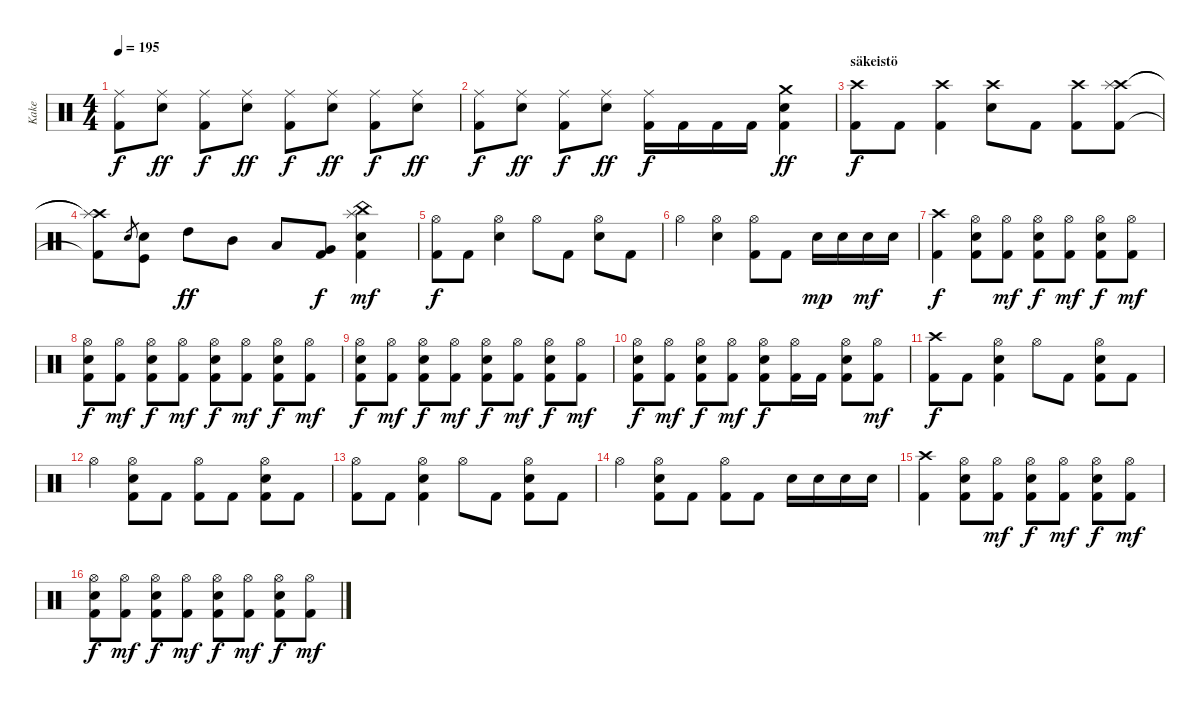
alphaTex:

\track ("Kake " "Kake ") {instrument percussion}
\staff {score}
\articulation defaults
\ts (4 4)
\tempo 195
\clef neutral
\ks c
("Ride (middle)" "Kick (hit) 2").8{dy f} ("Ride (middle)" "Electric Snare (hit)").8{dy ff} ("Ride (middle)" "Kick (hit) 2").8{dy f} ("Ride (middle)" "Electric Snare (hit)").8{dy ff} ("Ride (middle)" "Kick (hit) 2").8{dy f} ("Ride (middle)" "Electric Snare (hit)").8{dy ff} ("Ride (middle)" "Kick (hit) 2").8{dy f} ("Ride (middle)" "Electric Snare (hit)").8{dy ff} |
("Ride (middle)" "Kick (hit) 2").8{dy f} ("Ride (middle)" "Electric Snare (hit)").8{dy ff} ("Ride (middle)" "Kick (hit) 2").8{dy f} ("Ride (middle)" "Electric Snare (hit)").8{dy ff} ("Ride (middle)" "Kick (hit) 2").16{dy f} "Kick (hit) 2".16 "Kick (hit) 2".16 "Kick (hit) 2".16 ("Crash medium (hit)" "Electric Snare (hit)" "Kick (hit) 2").4{dy ff} |
\section ("" "säkeistö")
("Crash high (hit)" "Kick (hit) 2").8{dy f} "Kick (hit) 2".8 ("Crash high (hit)" "Kick (hit) 2").4 ("Crash high (hit)" "Electric Snare (hit)").8 "Kick (hit) 2".8 ("Crash high (hit)" "Kick (hit) 2").8 ("Crash high (hit)" "Splash (hit)" "Kick (hit) 2").8 |
("Crash high (hit)"{t} "Splash (hit)"{t} "Kick (hit) 2"{t}).8 "Electric Snare (hit)".8{gr} ("Electric Snare (hit)" "Kick (hit)").8 "High Tom (hit)".8{dy ff} "Mid Tom (hit)".8 "Low Tom (hit)".8 ("Very Low Tom (hit)" "Kick (hit) 2").8{dy f} ("China (hit)" "Splash (hit)" "Electric Snare (hit)" "Kick (hit) 2").4{dy mf} |
("Hi-Hat (open)" "Kick (hit) 2").8{dy f} "Kick (hit) 2".8 ("Hi-Hat (open)" "Electric Snare (hit)").4 "Hi-Hat (open)".8 "Kick (hit) 2".8 ("Hi-Hat (open)" "Electric Snare (hit)").8 "Kick (hit) 2".8 |
"Hi-Hat (open)".4 ("Hi-Hat (open)" "Electric Snare (hit)").4 ("Hi-Hat (open)" "Kick (hit) 2").8 "Kick (hit) 2".8 "Electric Snare (hit)".16{dy mp} "Electric Snare (hit)".16 "Electric Snare (hit)".16{dy mf} "Electric Snare (hit)".16 |
("Crash high (hit)" "Kick (hit) 2").4{dy f} ("Hi-Hat (open)" "Electric Snare (hit)" "Kick (hit) 2").8 ("Hi-Hat (open)" "Kick (hit) 2").8{dy mf} ("Hi-Hat (open)" "Electric Snare (hit)" "Kick (hit) 2").8{dy f} ("Hi-Hat (open)" "Kick (hit) 2").8{dy mf} ("Hi-Hat (open)" "Electric Snare (hit)" "Kick (hit) 2").8{dy f} ("Hi-Hat (open)" "Kick (hit) 2").8{dy mf} |
("Hi-Hat (open)" "Electric Snare (hit)" "Kick (hit) 2").8{dy f} ("Hi-Hat (open)" "Kick (hit) 2").8{dy mf} ("Hi-Hat (open)" "Electric Snare (hit)" "Kick (hit) 2").8{dy f} ("Hi-Hat (open)" "Kick (hit) 2").8{dy mf} ("Hi-Hat (open)" "Electric Snare (hit)" "Kick (hit) 2").8{dy f} ("Hi-Hat (open)" "Kick (hit) 2").8{dy mf} ("Hi-Hat (open)" "Electric Snare (hit)" "Kick (hit) 2").8{dy f} ("Hi-Hat (open)" "Kick (hit) 2").8{dy mf} |
("Hi-Hat (open)" "Electric Snare (hit)" "Kick (hit) 2").8{dy f} ("Hi-Hat (open)" "Kick (hit) 2").8{dy mf} ("Hi-Hat (open)" "Electric Snare (hit)" "Kick (hit) 2").8{dy f} ("Hi-Hat (open)" "Kick (hit) 2").8{dy mf} ("Hi-Hat (open)" "Electric Snare (hit)" "Kick (hit) 2").8{dy f} ("Hi-Hat (open)" "Kick (hit) 2").8{dy mf} ("Hi-Hat (open)" "Electric Snare (hit)" "Kick (hit) 2").8{dy f} ("Hi-Hat (open)" "Kick (hit) 2").8{dy mf} |
("Hi-Hat (open)" "Electric Snare (hit)" "Kick (hit) 2").8{dy f} ("Hi-Hat (open)" "Kick (hit) 2").8{dy mf} ("Hi-Hat (open)" "Electric Snare (hit)" "Kick (hit) 2").8{dy f} ("Hi-Hat (open)" "Kick (hit) 2").8{dy mf} ("Hi-Hat (open)" "Electric Snare (hit)" "Kick (hit) 2").8{dy f} ("Hi-Hat (open)" "Kick (hit) 2").16 "Kick (hit) 2".16 ("Hi-Hat (open)" "Electric Snare (hit)" "Kick (hit) 2").8 ("Hi-Hat (open)" "Kick (hit) 2").8{dy mf} |
("Crash high (hit)" "Kick (hit) 2").8{dy f} "Kick (hit) 2".8 ("Hi-Hat (open)" "Electric Snare (hit)" "Kick (hit) 2").4 "Hi-Hat (open)".8 "Kick (hit) 2".8 ("Hi-Hat (open)" "Electric Snare (hit)" "Kick (hit) 2").8 "Kick (hit) 2".8 |
"Hi-Hat (open)".4 ("Hi-Hat (open)" "Electric Snare (hit)" "Kick (hit) 2").8 "Kick (hit) 2".8 ("Hi-Hat (open)" "Kick (hit) 2").8 "Kick (hit) 2".8 ("Hi-Hat (open)" "Electric Snare (hit)" "Kick (hit) 2").8 "Kick (hit) 2".8 |
("Hi-Hat (open)" "Kick (hit) 2").8 "Kick (hit) 2".8 ("Hi-Hat (open)" "Electric Snare (hit)" "Kick (hit) 2").4 "Hi-Hat (open)".8 "Kick (hit) 2".8 ("Hi-Hat (open)" "Electric Snare (hit)" "Kick (hit) 2").8 "Kick (hit) 2".8 |
"Hi-Hat (open)".4 ("Hi-Hat (open)" "Electric Snare (hit)" "Kick (hit) 2").8 "Kick (hit) 2".8 ("Hi-Hat (open)" "Kick (hit) 2").8 "Kick (hit) 2".8 "Electric Snare (hit)".16 "Electric Snare (hit)".16 "Electric Snare (hit)".16 "Electric Snare (hit)".16 |
("Crash high (hit)" "Kick (hit) 2").4 ("Hi-Hat (open)" "Electric Snare (hit)" "Kick (hit) 2").8 ("Hi-Hat (open)" "Kick (hit) 2").8{dy mf} ("Hi-Hat (open)" "Electric Snare (hit)" "Kick (hit) 2").8{dy f} ("Hi-Hat (open)" "Kick (hit) 2").8{dy mf} ("Hi-Hat (open)" "Electric Snare (hit)" "Kick (hit) 2").8{dy f} ("Hi-Hat (open)" "Kick (hit) 2").8{dy mf} |
("Hi-Hat (open)" "Electric Snare (hit)" "Kick (hit) 2").8{dy f} ("Hi-Hat (open)" "Kick (hit) 2").8{dy mf} ("Hi-Hat (open)" "Electric Snare (hit)" "Kick (hit) 2").8{dy f} ("Hi-Hat (open)" "Kick (hit) 2").8{dy mf} ("Hi-Hat (open)" "Electric Snare (hit)" "Kick (hit) 2").8{dy f} ("Hi-Hat (open)" "Kick (hit) 2").8{dy mf} ("Hi-Hat (open)" "Electric Snare (hit)" "Kick (hit) 2").8{dy f} ("Hi-Hat (open)" "Kick (hit) 2").8{dy mf}
